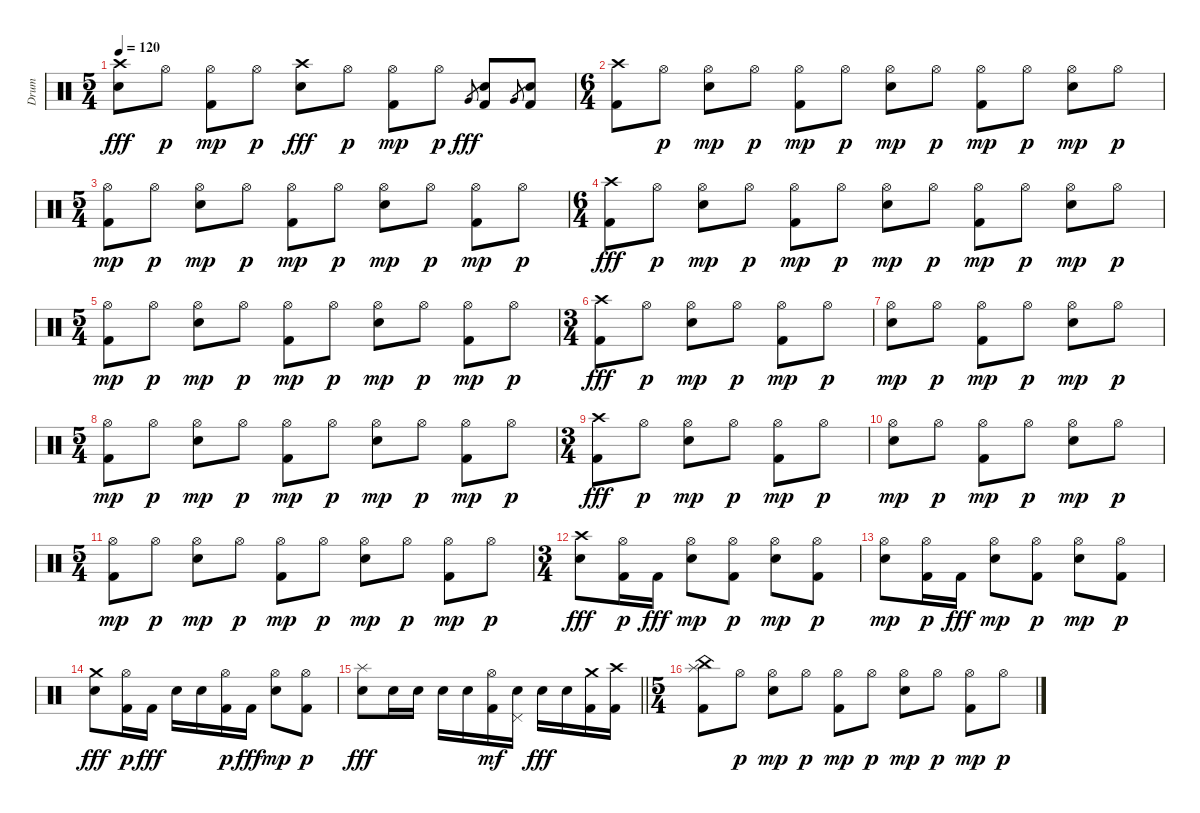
\track ("Drum" "Drum") {instrument percussion}
\staff {score}
\articulation defaults
\ts (5 4)
\tempo 120
\clef neutral
\ks c
("Electric Snare (hit)" "Crash high (hit)").8{dy fff} "Hi-Hat (open)".8{dy p} ("Kick (hit) 2" "Hi-Hat (open)").8{dy mp} "Hi-Hat (open)".8{dy p} ("Electric Snare (hit)" "Crash high (hit)").8{dy fff} "Hi-Hat (open)".8{dy p} ("Kick (hit) 2" "Hi-Hat (open)").8{dy mp} "Hi-Hat (open)".8{dy p} "Very Low Tom (hit)".8{gr dy fff} ("Electric Snare (hit)" "Kick (hit) 2").8 "Very Low Tom (hit)".8{gr} ("Electric Snare (hit)" "Kick (hit) 2").8 |
\ts (6 4)
("Kick (hit) 2" "Crash high (hit)").8 "Hi-Hat (open)".8{dy p} ("Electric Snare (hit)" "Hi-Hat (open)").8{dy mp} "Hi-Hat (open)".8{dy p} ("Kick (hit) 2" "Hi-Hat (open)").8{dy mp} "Hi-Hat (open)".8{dy p} ("Electric Snare (hit)" "Hi-Hat (open)").8{dy mp} "Hi-Hat (open)".8{dy p} ("Kick (hit) 2" "Hi-Hat (open)").8{dy mp} "Hi-Hat (open)".8{dy p} ("Electric Snare (hit)" "Hi-Hat (open)").8{dy mp} "Hi-Hat (open)".8{dy p} |
\ts (5 4)
("Kick (hit) 2" "Hi-Hat (open)").8{dy mp} "Hi-Hat (open)".8{dy p} ("Electric Snare (hit)" "Hi-Hat (open)").8{dy mp} "Hi-Hat (open)".8{dy p} ("Kick (hit) 2" "Hi-Hat (open)").8{dy mp} "Hi-Hat (open)".8{dy p} ("Electric Snare (hit)" "Hi-Hat (open)").8{dy mp} "Hi-Hat (open)".8{dy p} ("Kick (hit) 2" "Hi-Hat (open)").8{dy mp} "Hi-Hat (open)".8{dy p} |
\ts (6 4)
("Kick (hit) 2" "Crash high (hit)").8{dy fff} "Hi-Hat (open)".8{dy p} ("Electric Snare (hit)" "Hi-Hat (open)").8{dy mp} "Hi-Hat (open)".8{dy p} ("Kick (hit) 2" "Hi-Hat (open)").8{dy mp} "Hi-Hat (open)".8{dy p} ("Electric Snare (hit)" "Hi-Hat (open)").8{dy mp} "Hi-Hat (open)".8{dy p} ("Kick (hit) 2" "Hi-Hat (open)").8{dy mp} "Hi-Hat (open)".8{dy p} ("Electric Snare (hit)" "Hi-Hat (open)").8{dy mp} "Hi-Hat (open)".8{dy p} |
\ts (5 4)
("Kick (hit) 2" "Hi-Hat (open)").8{dy mp} "Hi-Hat (open)".8{dy p} ("Electric Snare (hit)" "Hi-Hat (open)").8{dy mp} "Hi-Hat (open)".8{dy p} ("Kick (hit) 2" "Hi-Hat (open)").8{dy mp} "Hi-Hat (open)".8{dy p} ("Electric Snare (hit)" "Hi-Hat (open)").8{dy mp} "Hi-Hat (open)".8{dy p} ("Kick (hit) 2" "Hi-Hat (open)").8{dy mp} "Hi-Hat (open)".8{dy p} |
\ts (3 4)
("Kick (hit) 2" "Crash high (hit)").8{dy fff} "Hi-Hat (open)".8{dy p} ("Electric Snare (hit)" "Hi-Hat (open)").8{dy mp} "Hi-Hat (open)".8{dy p} ("Kick (hit) 2" "Hi-Hat (open)").8{dy mp} "Hi-Hat (open)".8{dy p} |
("Electric Snare (hit)" "Hi-Hat (open)").8{dy mp} "Hi-Hat (open)".8{dy p} ("Kick (hit) 2" "Hi-Hat (open)").8{dy mp} "Hi-Hat (open)".8{dy p} ("Electric Snare (hit)" "Hi-Hat (open)").8{dy mp} "Hi-Hat (open)".8{dy p} |
\ts (5 4)
("Kick (hit) 2" "Hi-Hat (open)").8{dy mp} "Hi-Hat (open)".8{dy p} ("Electric Snare (hit)" "Hi-Hat (open)").8{dy mp} "Hi-Hat (open)".8{dy p} ("Kick (hit) 2" "Hi-Hat (open)").8{dy mp} "Hi-Hat (open)".8{dy p} ("Electric Snare (hit)" "Hi-Hat (open)").8{dy mp} "Hi-Hat (open)".8{dy p} ("Kick (hit) 2" "Hi-Hat (open)").8{dy mp} "Hi-Hat (open)".8{dy p} |
\ts (3 4)
("Kick (hit) 2" "Crash high (hit)").8{dy fff} "Hi-Hat (open)".8{dy p} ("Electric Snare (hit)" "Hi-Hat (open)").8{dy mp} "Hi-Hat (open)".8{dy p} ("Kick (hit) 2" "Hi-Hat (open)").8{dy mp} "Hi-Hat (open)".8{dy p} |
("Electric Snare (hit)" "Hi-Hat (open)").8{dy mp} "Hi-Hat (open)".8{dy p} ("Kick (hit) 2" "Hi-Hat (open)").8{dy mp} "Hi-Hat (open)".8{dy p} ("Electric Snare (hit)" "Hi-Hat (open)").8{dy mp} "Hi-Hat (open)".8{dy p} |
\ts (5 4)
("Kick (hit) 2" "Hi-Hat (open)").8{dy mp} "Hi-Hat (open)".8{dy p} ("Electric Snare (hit)" "Hi-Hat (open)").8{dy mp} "Hi-Hat (open)".8{dy p} ("Kick (hit) 2" "Hi-Hat (open)").8{dy mp} "Hi-Hat (open)".8{dy p} ("Electric Snare (hit)" "Hi-Hat (open)").8{dy mp} "Hi-Hat (open)".8{dy p} ("Kick (hit) 2" "Hi-Hat (open)").8{dy mp} "Hi-Hat (open)".8{dy p} |
\ts (3 4)
("Electric Snare (hit)" "Crash high (hit)").8{dy fff} ("Kick (hit) 2" "Hi-Hat (open)").16{dy p} "Kick (hit) 2".16{dy fff} ("Electric Snare (hit)" "Hi-Hat (open)").8{dy mp} ("Kick (hit) 2" "Hi-Hat (open)").8{dy p} ("Electric Snare (hit)" "Hi-Hat (open)").8{dy mp} ("Kick (hit) 2" "Hi-Hat (open)").8{dy p} |
("Electric Snare (hit)" "Hi-Hat (open)").8{dy mp} ("Kick (hit) 2" "Hi-Hat (open)").16{dy p} "Kick (hit) 2".16{dy fff} ("Electric Snare (hit)" "Hi-Hat (open)").8{dy mp} ("Kick (hit) 2" "Hi-Hat (open)").8{dy p} ("Electric Snare (hit)" "Hi-Hat (open)").8{dy mp} ("Kick (hit) 2" "Hi-Hat (open)").8{dy p} |
("Electric Snare (hit)" "Crash medium (hit)").8{dy fff} ("Kick (hit) 2" "Hi-Hat (open)").16{dy p} "Kick (hit) 2".16{dy fff} "Electric Snare (hit)".16 "Electric Snare (hit)".16 ("Kick (hit) 2" "Hi-Hat (open)").16{dy p} "Kick (hit) 2".16{dy fff} ("Electric Snare (hit)" "Hi-Hat (open)").8{dy mp} ("Kick (hit) 2" "Hi-Hat (open)").8{dy p} |
\barLineRight lightlight
("Electric Snare (hit)" "Splash (hit)").8{dy fff} "Electric Snare (hit)".16 "Electric Snare (hit)".16 "Electric Snare (hit)".16 "Electric Snare (hit)".16 ("Kick (hit) 2" "Hi-Hat (open)").16{dy mf} ("Electric Snare (hit)" "Pedal Hi-Hat (hit)").16 "Electric Snare (hit)".16{dy fff} "Electric Snare (hit)".16 ("Kick (hit) 2" "Crash medium (hit)").16 ("Kick (hit) 2" "Crash high (hit)").16 |
\ts (5 4)
("Kick (hit) 2" "China (hit)" "Splash (hit)").8 "Hi-Hat (open)".8{dy p} ("Electric Snare (hit)" "Hi-Hat (open)").8{dy mp} "Hi-Hat (open)".8{dy p} ("Kick (hit) 2" "Hi-Hat (open)").8{dy mp} "Hi-Hat (open)".8{dy p} ("Electric Snare (hit)" "Hi-Hat (open)").8{dy mp} "Hi-Hat (open)".8{dy p} ("Kick (hit) 2" "Hi-Hat (open)").8{dy mp} "Hi-Hat (open)".8{dy p}
